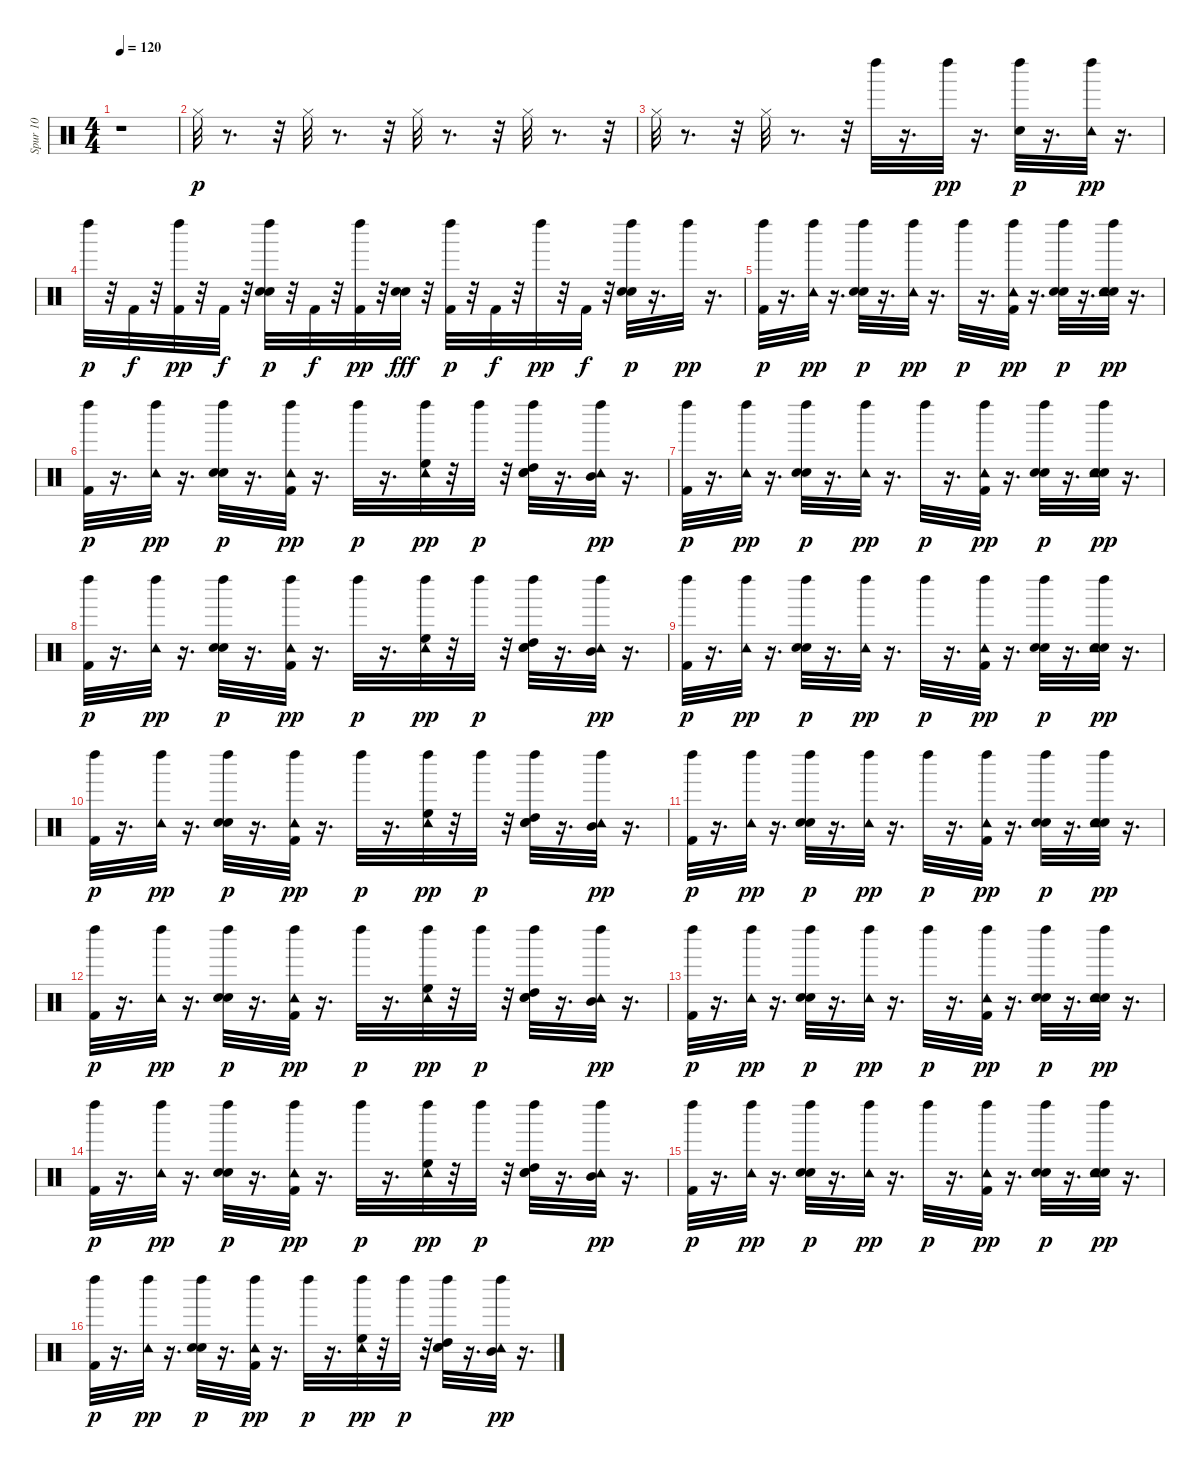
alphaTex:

\track ("Spur 10" "Spur 10") {instrument percussion}
\staff {score}
\articulation defaults
\ts (4 4)
\tempo 120
\clef neutral
\ks c
r.1{dy p} |
"Hi-Hat (closed)".32 r.8{d} r.32 "Hi-Hat (closed)".32 r.8{d} r.32 "Hi-Hat (closed)".32 r.8{d} r.32 "Hi-Hat (closed)".32 r.8{d} r.32 |
"Hi-Hat (closed)".32 r.8{d} r.32 "Hi-Hat (closed)".32 r.8{d} r.32 "Left Maraca (hit)".32 r.16{d} "Left Maraca (hit)".32{dy pp} r.16{d} ("Hand Clap (hit)" "Left Maraca (hit)").32{dy p} r.16{d} ("Tambourine (hit)" "Left Maraca (hit)").32{dy pp} r.16{d} |
"Left Maraca (hit)".32{dy p} r.32 "Kick (hit) 2".32{dy f} r.32 ("Kick (hit) 2" "Left Maraca (hit)").32{dy pp} r.32 "Kick (hit) 2".32{dy f} r.32 ("Hand Clap (hit)" "Electric Snare (hit)" "Left Maraca (hit)").32{dy p} r.32 "Kick (hit) 2".32{dy f} r.32 ("Kick (hit) 2" "Left Maraca (hit)").32{dy pp} r.32 ("Hand Clap (hit)" "Electric Snare (hit)").32{dy fff} r.32 ("Kick (hit) 2" "Left Maraca (hit)").32{dy p} r.32 "Kick (hit) 2".32{dy f} r.32 "Left Maraca (hit)".32{dy pp} r.32 "Kick (hit) 2".32{dy f} r.32 ("Hand Clap (hit)" "Electric Snare (hit)" "Left Maraca (hit)").32{dy p} r.16{d} "Left Maraca (hit)".32{dy pp} r.16{d} |
("Kick (hit) 2" "Left Maraca (hit)").32{dy p} r.16{d} ("Tambourine (hit)" "Left Maraca (hit)").32{dy pp} r.16{d} ("Hand Clap (hit)" "Electric Snare (hit)" "Left Maraca (hit)").32{dy p} r.16{d} ("Tambourine (hit)" "Left Maraca (hit)").32{dy pp} r.16{d} "Left Maraca (hit)".32{dy p} r.16{d} ("Kick (hit) 2" "Tambourine (hit)" "Left Maraca (hit)").32{dy pp} r.16{d} ("Hand Clap (hit)" "Electric Snare (hit)" "Left Maraca (hit)").32{dy p} r.16{d} ("Hand Clap (hit)" "Electric Snare (hit)" "Tambourine (hit)" "Left Maraca (hit)").32{dy pp} r.16{d} |
("Kick (hit) 2" "Left Maraca (hit)").32{dy p} r.16{d} ("Tambourine (hit)" "Left Maraca (hit)").32{dy pp} r.16{d} ("Hand Clap (hit)" "Electric Snare (hit)" "Left Maraca (hit)").32{dy p} r.16{d} ("Kick (hit) 2" "Tambourine (hit)" "Left Maraca (hit)").32{dy pp} r.16{d} "Left Maraca (hit)".32{dy p} r.16{d} ("High Floor Tom (hit)" "Tambourine (hit)" "Left Maraca (hit)").32{dy pp} r.32 "Left Maraca (hit)".32{dy p} r.32 ("Hand Clap (hit)" "Electric Snare (hit)" "High Tom (hit)" "Left Maraca (hit)").32 r.16{d} ("Mid Tom (hit)" "Tambourine (hit)" "Left Maraca (hit)").32{dy pp} r.16{d} |
("Kick (hit) 2" "Left Maraca (hit)").32{dy p} r.16{d} ("Tambourine (hit)" "Left Maraca (hit)").32{dy pp} r.16{d} ("Hand Clap (hit)" "Electric Snare (hit)" "Left Maraca (hit)").32{dy p} r.16{d} ("Tambourine (hit)" "Left Maraca (hit)").32{dy pp} r.16{d} "Left Maraca (hit)".32{dy p} r.16{d} ("Kick (hit) 2" "Tambourine (hit)" "Left Maraca (hit)").32{dy pp} r.16{d} ("Hand Clap (hit)" "Electric Snare (hit)" "Left Maraca (hit)").32{dy p} r.16{d} ("Hand Clap (hit)" "Electric Snare (hit)" "Tambourine (hit)" "Left Maraca (hit)").32{dy pp} r.16{d} |
("Kick (hit) 2" "Left Maraca (hit)").32{dy p} r.16{d} ("Tambourine (hit)" "Left Maraca (hit)").32{dy pp} r.16{d} ("Hand Clap (hit)" "Electric Snare (hit)" "Left Maraca (hit)").32{dy p} r.16{d} ("Kick (hit) 2" "Tambourine (hit)" "Left Maraca (hit)").32{dy pp} r.16{d} "Left Maraca (hit)".32{dy p} r.16{d} ("High Floor Tom (hit)" "Tambourine (hit)" "Left Maraca (hit)").32{dy pp} r.32 "Left Maraca (hit)".32{dy p} r.32 ("Hand Clap (hit)" "Electric Snare (hit)" "High Tom (hit)" "Left Maraca (hit)").32 r.16{d} ("Mid Tom (hit)" "Tambourine (hit)" "Left Maraca (hit)").32{dy pp} r.16{d} |
("Kick (hit) 2" "Left Maraca (hit)").32{dy p} r.16{d} ("Tambourine (hit)" "Left Maraca (hit)").32{dy pp} r.16{d} ("Hand Clap (hit)" "Electric Snare (hit)" "Left Maraca (hit)").32{dy p} r.16{d} ("Tambourine (hit)" "Left Maraca (hit)").32{dy pp} r.16{d} "Left Maraca (hit)".32{dy p} r.16{d} ("Kick (hit) 2" "Tambourine (hit)" "Left Maraca (hit)").32{dy pp} r.16{d} ("Hand Clap (hit)" "Electric Snare (hit)" "Left Maraca (hit)").32{dy p} r.16{d} ("Hand Clap (hit)" "Electric Snare (hit)" "Tambourine (hit)" "Left Maraca (hit)").32{dy pp} r.16{d} |
("Kick (hit) 2" "Left Maraca (hit)").32{dy p} r.16{d} ("Tambourine (hit)" "Left Maraca (hit)").32{dy pp} r.16{d} ("Hand Clap (hit)" "Electric Snare (hit)" "Left Maraca (hit)").32{dy p} r.16{d} ("Kick (hit) 2" "Tambourine (hit)" "Left Maraca (hit)").32{dy pp} r.16{d} "Left Maraca (hit)".32{dy p} r.16{d} ("High Floor Tom (hit)" "Tambourine (hit)" "Left Maraca (hit)").32{dy pp} r.32 "Left Maraca (hit)".32{dy p} r.32 ("Hand Clap (hit)" "Electric Snare (hit)" "High Tom (hit)" "Left Maraca (hit)").32 r.16{d} ("Mid Tom (hit)" "Tambourine (hit)" "Left Maraca (hit)").32{dy pp} r.16{d} |
("Kick (hit) 2" "Left Maraca (hit)").32{dy p} r.16{d} ("Tambourine (hit)" "Left Maraca (hit)").32{dy pp} r.16{d} ("Hand Clap (hit)" "Electric Snare (hit)" "Left Maraca (hit)").32{dy p} r.16{d} ("Tambourine (hit)" "Left Maraca (hit)").32{dy pp} r.16{d} "Left Maraca (hit)".32{dy p} r.16{d} ("Kick (hit) 2" "Tambourine (hit)" "Left Maraca (hit)").32{dy pp} r.16{d} ("Hand Clap (hit)" "Electric Snare (hit)" "Left Maraca (hit)").32{dy p} r.16{d} ("Hand Clap (hit)" "Electric Snare (hit)" "Tambourine (hit)" "Left Maraca (hit)").32{dy pp} r.16{d} |
("Kick (hit) 2" "Left Maraca (hit)").32{dy p} r.16{d} ("Tambourine (hit)" "Left Maraca (hit)").32{dy pp} r.16{d} ("Hand Clap (hit)" "Electric Snare (hit)" "Left Maraca (hit)").32{dy p} r.16{d} ("Kick (hit) 2" "Tambourine (hit)" "Left Maraca (hit)").32{dy pp} r.16{d} "Left Maraca (hit)".32{dy p} r.16{d} ("High Floor Tom (hit)" "Tambourine (hit)" "Left Maraca (hit)").32{dy pp} r.32 "Left Maraca (hit)".32{dy p} r.32 ("Hand Clap (hit)" "Electric Snare (hit)" "High Tom (hit)" "Left Maraca (hit)").32 r.16{d} ("Mid Tom (hit)" "Tambourine (hit)" "Left Maraca (hit)").32{dy pp} r.16{d} |
("Kick (hit) 2" "Left Maraca (hit)").32{dy p} r.16{d} ("Tambourine (hit)" "Left Maraca (hit)").32{dy pp} r.16{d} ("Hand Clap (hit)" "Electric Snare (hit)" "Left Maraca (hit)").32{dy p} r.16{d} ("Tambourine (hit)" "Left Maraca (hit)").32{dy pp} r.16{d} "Left Maraca (hit)".32{dy p} r.16{d} ("Kick (hit) 2" "Tambourine (hit)" "Left Maraca (hit)").32{dy pp} r.16{d} ("Hand Clap (hit)" "Electric Snare (hit)" "Left Maraca (hit)").32{dy p} r.16{d} ("Hand Clap (hit)" "Electric Snare (hit)" "Tambourine (hit)" "Left Maraca (hit)").32{dy pp} r.16{d} |
("Kick (hit) 2" "Left Maraca (hit)").32{dy p} r.16{d} ("Tambourine (hit)" "Left Maraca (hit)").32{dy pp} r.16{d} ("Hand Clap (hit)" "Electric Snare (hit)" "Left Maraca (hit)").32{dy p} r.16{d} ("Kick (hit) 2" "Tambourine (hit)" "Left Maraca (hit)").32{dy pp} r.16{d} "Left Maraca (hit)".32{dy p} r.16{d} ("High Floor Tom (hit)" "Tambourine (hit)" "Left Maraca (hit)").32{dy pp} r.32 "Left Maraca (hit)".32{dy p} r.32 ("Hand Clap (hit)" "Electric Snare (hit)" "High Tom (hit)" "Left Maraca (hit)").32 r.16{d} ("Mid Tom (hit)" "Tambourine (hit)" "Left Maraca (hit)").32{dy pp} r.16{d} |
("Kick (hit) 2" "Left Maraca (hit)").32{dy p} r.16{d} ("Tambourine (hit)" "Left Maraca (hit)").32{dy pp} r.16{d} ("Hand Clap (hit)" "Electric Snare (hit)" "Left Maraca (hit)").32{dy p} r.16{d} ("Tambourine (hit)" "Left Maraca (hit)").32{dy pp} r.16{d} "Left Maraca (hit)".32{dy p} r.16{d} ("Kick (hit) 2" "Tambourine (hit)" "Left Maraca (hit)").32{dy pp} r.16{d} ("Hand Clap (hit)" "Electric Snare (hit)" "Left Maraca (hit)").32{dy p} r.16{d} ("Hand Clap (hit)" "Electric Snare (hit)" "Tambourine (hit)" "Left Maraca (hit)").32{dy pp} r.16{d} |
("Kick (hit) 2" "Left Maraca (hit)").32{dy p} r.16{d} ("Tambourine (hit)" "Left Maraca (hit)").32{dy pp} r.16{d} ("Hand Clap (hit)" "Electric Snare (hit)" "Left Maraca (hit)").32{dy p} r.16{d} ("Kick (hit) 2" "Tambourine (hit)" "Left Maraca (hit)").32{dy pp} r.16{d} "Left Maraca (hit)".32{dy p} r.16{d} ("High Floor Tom (hit)" "Tambourine (hit)" "Left Maraca (hit)").32{dy pp} r.32 "Left Maraca (hit)".32{dy p} r.32 ("Hand Clap (hit)" "Electric Snare (hit)" "High Tom (hit)" "Left Maraca (hit)").32 r.16{d} ("Mid Tom (hit)" "Tambourine (hit)" "Left Maraca (hit)").32{dy pp} r.16{d}
